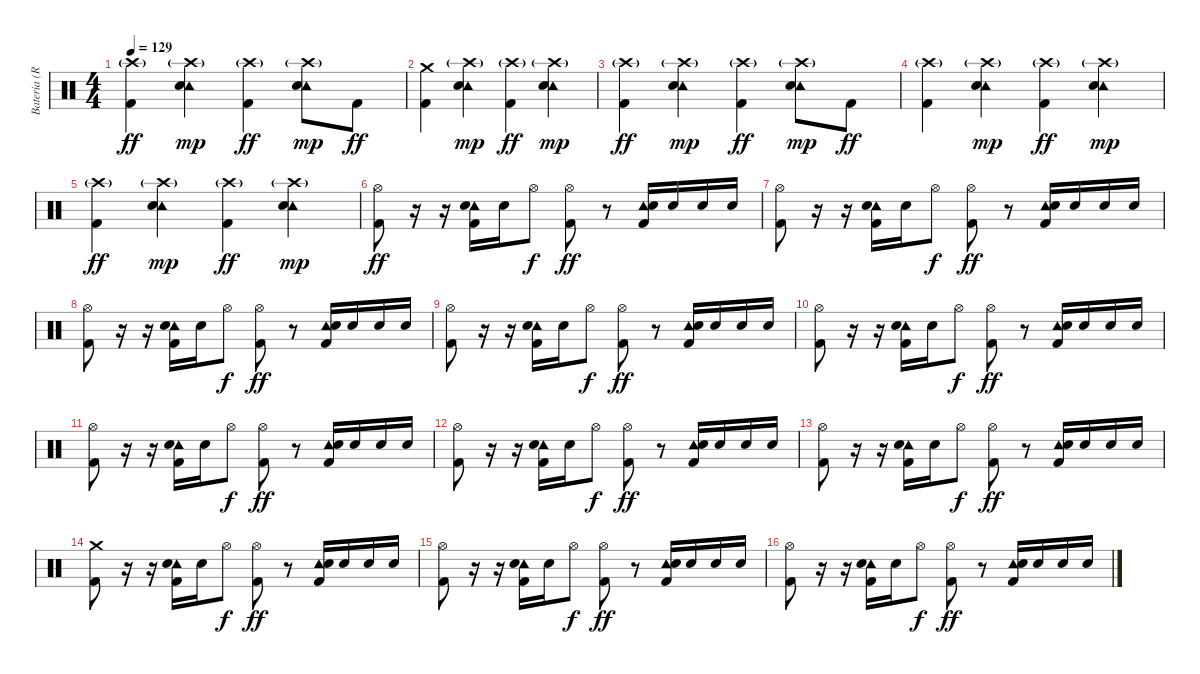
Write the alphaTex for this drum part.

\track ("Bateria (Roy)" "Bateria (R") {instrument percussion}
\staff {score}
\articulation defaults
\ts (4 4)
\tempo 129
\clef neutral
\ks c
("Crash high (hit)"{g} "Kick (hit) 2").4{dy ff} ("Crash high (hit)"{g} "Tambourine (hit)" "Electric Snare (hit)").4{dy mp} ("Crash high (hit)"{g} "Kick (hit) 2").4{dy ff} ("Crash high (hit)"{g} "Tambourine (hit)" "Electric Snare (hit)").8{dy mp} "Kick (hit) 2".8{dy ff} |
("Crash medium (hit)" "Kick (hit) 2").4 ("Crash high (hit)"{g} "Tambourine (hit)" "Electric Snare (hit)").4{dy mp} ("Crash high (hit)"{g} "Kick (hit) 2").4{dy ff} ("Crash high (hit)"{g} "Tambourine (hit)" "Electric Snare (hit)").4{dy mp} |
("Crash high (hit)"{g} "Kick (hit) 2").4{dy ff} ("Crash high (hit)"{g} "Tambourine (hit)" "Electric Snare (hit)").4{dy mp} ("Crash high (hit)"{g} "Kick (hit) 2").4{dy ff} ("Crash high (hit)"{g} "Tambourine (hit)" "Electric Snare (hit)").8{dy mp} "Kick (hit) 2".8{dy ff} |
("Crash high (hit)"{g} "Kick (hit) 2").4 ("Crash high (hit)"{g} "Tambourine (hit)" "Electric Snare (hit)").4{dy mp} ("Crash high (hit)"{g} "Kick (hit) 2").4{dy ff} ("Crash high (hit)"{g} "Tambourine (hit)" "Electric Snare (hit)").4{dy mp} |
("Crash high (hit)"{g} "Kick (hit) 2").4{dy ff} ("Crash high (hit)"{g} "Tambourine (hit)" "Electric Snare (hit)").4{dy mp} ("Crash high (hit)"{g} "Kick (hit) 2").4{dy ff} ("Crash high (hit)"{g} "Tambourine (hit)" "Electric Snare (hit)").4{dy mp} |
("Hi-Hat (open)" "Kick (hit) 2").8{dy ff} r.16 r.16 ("Tambourine (hit)" "Electric Snare (hit)" "Kick (hit) 2").16 "Electric Snare (hit)".16 "Hi-Hat (open)".8{dy f} ("Hi-Hat (open)" "Kick (hit) 2").8{dy ff} r.8 ("Tambourine (hit)" "Electric Snare (hit)" "Kick (hit) 2").16 "Electric Snare (hit)".16 "Electric Snare (hit)".16 "Electric Snare (hit)".16 |
("Hi-Hat (open)" "Kick (hit) 2").8 r.16 r.16 ("Tambourine (hit)" "Electric Snare (hit)" "Kick (hit) 2").16 "Electric Snare (hit)".16 "Hi-Hat (open)".8{dy f} ("Hi-Hat (open)" "Kick (hit) 2").8{dy ff} r.8 ("Tambourine (hit)" "Electric Snare (hit)" "Kick (hit) 2").16 "Electric Snare (hit)".16 "Electric Snare (hit)".16 "Electric Snare (hit)".16 |
("Hi-Hat (open)" "Kick (hit) 2").8 r.16 r.16 ("Tambourine (hit)" "Electric Snare (hit)" "Kick (hit) 2").16 "Electric Snare (hit)".16 "Hi-Hat (open)".8{dy f} ("Hi-Hat (open)" "Kick (hit) 2").8{dy ff} r.8 ("Tambourine (hit)" "Electric Snare (hit)" "Kick (hit) 2").16 "Electric Snare (hit)".16 "Electric Snare (hit)".16 "Electric Snare (hit)".16 |
("Hi-Hat (open)" "Kick (hit) 2").8 r.16 r.16 ("Tambourine (hit)" "Electric Snare (hit)" "Kick (hit) 2").16 "Electric Snare (hit)".16 "Hi-Hat (open)".8{dy f} ("Hi-Hat (open)" "Kick (hit) 2").8{dy ff} r.8 ("Tambourine (hit)" "Electric Snare (hit)" "Kick (hit) 2").16 "Electric Snare (hit)".16 "Electric Snare (hit)".16 "Electric Snare (hit)".16 |
("Hi-Hat (open)" "Kick (hit) 2").8 r.16 r.16 ("Tambourine (hit)" "Electric Snare (hit)" "Kick (hit) 2").16 "Electric Snare (hit)".16 "Hi-Hat (open)".8{dy f} ("Hi-Hat (open)" "Kick (hit) 2").8{dy ff} r.8 ("Tambourine (hit)" "Electric Snare (hit)" "Kick (hit) 2").16 "Electric Snare (hit)".16 "Electric Snare (hit)".16 "Electric Snare (hit)".16 |
("Hi-Hat (open)" "Kick (hit) 2").8 r.16 r.16 ("Tambourine (hit)" "Electric Snare (hit)" "Kick (hit) 2").16 "Electric Snare (hit)".16 "Hi-Hat (open)".8{dy f} ("Hi-Hat (open)" "Kick (hit) 2").8{dy ff} r.8 ("Tambourine (hit)" "Electric Snare (hit)" "Kick (hit) 2").16 "Electric Snare (hit)".16 "Electric Snare (hit)".16 "Electric Snare (hit)".16 |
("Hi-Hat (open)" "Kick (hit) 2").8 r.16 r.16 ("Tambourine (hit)" "Electric Snare (hit)" "Kick (hit) 2").16 "Electric Snare (hit)".16 "Hi-Hat (open)".8{dy f} ("Hi-Hat (open)" "Kick (hit) 2").8{dy ff} r.8 ("Tambourine (hit)" "Electric Snare (hit)" "Kick (hit) 2").16 "Electric Snare (hit)".16 "Electric Snare (hit)".16 "Electric Snare (hit)".16 |
("Hi-Hat (open)" "Kick (hit) 2").8 r.16 r.16 ("Tambourine (hit)" "Electric Snare (hit)" "Kick (hit) 2").16 "Electric Snare (hit)".16 "Hi-Hat (open)".8{dy f} ("Hi-Hat (open)" "Kick (hit) 2").8{dy ff} r.8 ("Tambourine (hit)" "Electric Snare (hit)" "Kick (hit) 2").16 "Electric Snare (hit)".16 "Electric Snare (hit)".16 "Electric Snare (hit)".16 |
("Crash medium (hit)" "Kick (hit) 2").8 r.16 r.16 ("Tambourine (hit)" "Electric Snare (hit)" "Kick (hit) 2").16 "Electric Snare (hit)".16 "Hi-Hat (open)".8{dy f} ("Hi-Hat (open)" "Kick (hit) 2").8{dy ff} r.8 ("Tambourine (hit)" "Electric Snare (hit)" "Kick (hit) 2").16 "Electric Snare (hit)".16 "Electric Snare (hit)".16 "Electric Snare (hit)".16 |
("Hi-Hat (open)" "Kick (hit) 2").8 r.16 r.16 ("Tambourine (hit)" "Electric Snare (hit)" "Kick (hit) 2").16 "Electric Snare (hit)".16 "Hi-Hat (open)".8{dy f} ("Hi-Hat (open)" "Kick (hit) 2").8{dy ff} r.8 ("Tambourine (hit)" "Electric Snare (hit)" "Kick (hit) 2").16 "Electric Snare (hit)".16 "Electric Snare (hit)".16 "Electric Snare (hit)".16 |
("Hi-Hat (open)" "Kick (hit) 2").8 r.16 r.16 ("Tambourine (hit)" "Electric Snare (hit)" "Kick (hit) 2").16 "Electric Snare (hit)".16 "Hi-Hat (open)".8{dy f} ("Hi-Hat (open)" "Kick (hit) 2").8{dy ff} r.8 ("Tambourine (hit)" "Electric Snare (hit)" "Kick (hit) 2").16 "Electric Snare (hit)".16 "Electric Snare (hit)".16 "Electric Snare (hit)".16
